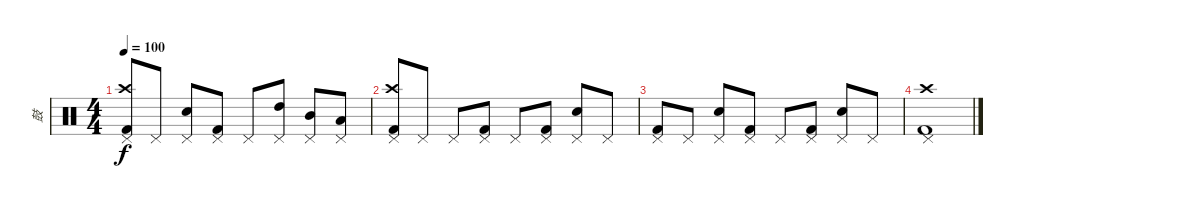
\track ("鼓" "鼓") {instrument percussion}
\staff {score}
\articulation defaults
\ts (4 4)
\tempo 100
\clef neutral
\ks c
("Pedal Hi-Hat (hit)" "Crash high (hit)" "Kick (hit) 2").8{dy f} "Pedal Hi-Hat (hit)".8 ("Pedal Hi-Hat (hit)" "Snare (hit) 2").8 ("Pedal Hi-Hat (hit)" "Kick (hit) 2").8 "Pedal Hi-Hat (hit)".8 ("Pedal Hi-Hat (hit)" "High Tom (hit)").8 ("Pedal Hi-Hat (hit)" "Mid Tom (hit)").8 ("Pedal Hi-Hat (hit)" "Low Tom (hit)").8 |
("Pedal Hi-Hat (hit)" "Crash high (hit)" "Kick (hit) 2").8 "Pedal Hi-Hat (hit)".8 "Pedal Hi-Hat (hit)".8 ("Pedal Hi-Hat (hit)" "Kick (hit) 2").8 "Pedal Hi-Hat (hit)".8 ("Pedal Hi-Hat (hit)" "Kick (hit) 2").8 ("Pedal Hi-Hat (hit)" "Snare (hit) 2").8 "Pedal Hi-Hat (hit)".8 |
("Pedal Hi-Hat (hit)" "Kick (hit) 2").8 "Pedal Hi-Hat (hit)".8 ("Pedal Hi-Hat (hit)" "Snare (hit) 2").8 ("Pedal Hi-Hat (hit)" "Kick (hit) 2").8 "Pedal Hi-Hat (hit)".8 ("Pedal Hi-Hat (hit)" "Kick (hit) 2").8 ("Pedal Hi-Hat (hit)" "Snare (hit) 2").8 "Pedal Hi-Hat (hit)".8 |
("Pedal Hi-Hat (hit)" "Crash high (hit)" "Kick (hit) 2").1
